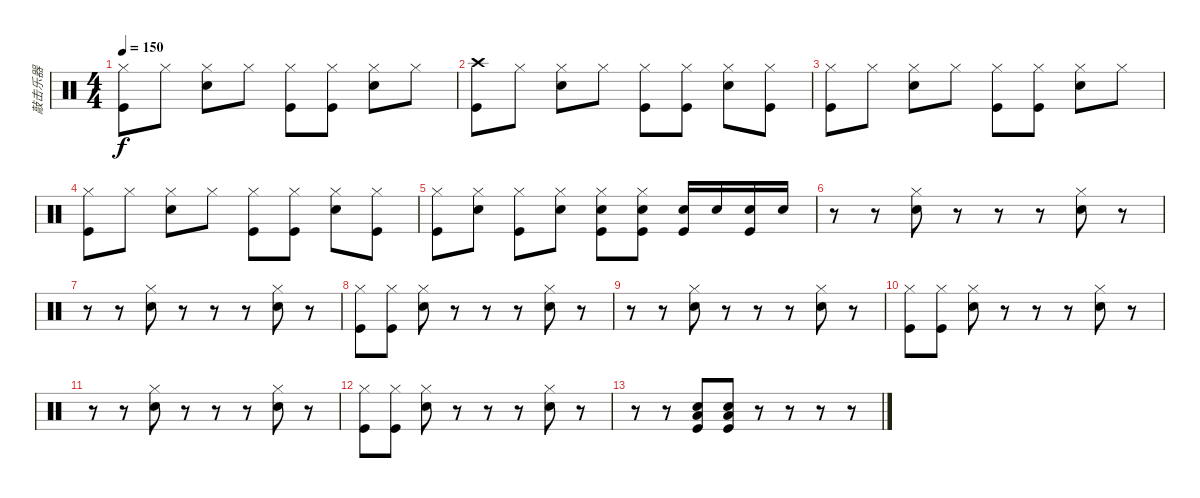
\track ("敲击乐器" "敲击乐器") {instrument percussion}
\staff {score}
\articulation defaults
\ts (4 4)
\tempo 150
\clef neutral
\ks c
("Hi-Hat (closed)" "Kick (hit)").8{dy f} "Hi-Hat (closed)".8 ("Hi-Hat (closed)" "Electric Snare (hit)").8 "Hi-Hat (closed)".8 ("Hi-Hat (closed)" "Kick (hit)").8 ("Hi-Hat (closed)" "Kick (hit)").8 ("Hi-Hat (closed)" "Electric Snare (hit)").8 "Hi-Hat (closed)".8 |
("Crash high (hit)" "Kick (hit)").8 "Hi-Hat (closed)".8 ("Hi-Hat (closed)" "Electric Snare (hit)").8 "Hi-Hat (closed)".8 ("Hi-Hat (closed)" "Kick (hit)").8 ("Hi-Hat (closed)" "Kick (hit)").8 ("Hi-Hat (closed)" "Electric Snare (hit)").8 ("Hi-Hat (closed)" "Kick (hit)").8 |
("Hi-Hat (closed)" "Kick (hit)").8 "Hi-Hat (closed)".8 ("Hi-Hat (closed)" "Electric Snare (hit)").8 "Hi-Hat (closed)".8 ("Hi-Hat (closed)" "Kick (hit)").8 ("Hi-Hat (closed)" "Kick (hit)").8 ("Hi-Hat (closed)" "Electric Snare (hit)").8 "Hi-Hat (closed)".8 |
("Hi-Hat (closed)" "Kick (hit)").8 "Hi-Hat (closed)".8 ("Hi-Hat (closed)" "Electric Snare (hit)").8 "Hi-Hat (closed)".8 ("Hi-Hat (closed)" "Kick (hit)").8 ("Hi-Hat (closed)" "Kick (hit)").8 ("Hi-Hat (closed)" "Electric Snare (hit)").8 ("Hi-Hat (closed)" "Kick (hit)").8 |
("Hi-Hat (closed)" "Kick (hit)").8 ("Hi-Hat (closed)" "Electric Snare (hit)").8 ("Hi-Hat (closed)" "Kick (hit)").8 ("Hi-Hat (closed)" "Electric Snare (hit)").8 ("Hi-Hat (closed)" "Electric Snare (hit)" "Kick (hit)").8 ("Hi-Hat (closed)" "Electric Snare (hit)" "Kick (hit)").8 ("Electric Snare (hit)" "Kick (hit)").16 "Electric Snare (hit)".16 ("Electric Snare (hit)" "Kick (hit)").16 "Electric Snare (hit)".16 |
r.8 r.8 ("Hi-Hat (closed)" "Electric Snare (hit)").8 r.8 r.8 r.8 ("Hi-Hat (closed)" "Electric Snare (hit)").8 r.8 |
r.8 r.8 ("Hi-Hat (closed)" "Electric Snare (hit)").8 r.8 r.8 r.8 ("Hi-Hat (closed)" "Electric Snare (hit)").8 r.8 |
("Hi-Hat (closed)" "Kick (hit)").8 ("Hi-Hat (closed)" "Kick (hit)").8 ("Hi-Hat (closed)" "Electric Snare (hit)").8 r.8 r.8 r.8 ("Hi-Hat (closed)" "Electric Snare (hit)").8 r.8 |
r.8 r.8 ("Hi-Hat (closed)" "Electric Snare (hit)").8 r.8 r.8 r.8 ("Hi-Hat (closed)" "Electric Snare (hit)").8 r.8 |
("Hi-Hat (closed)" "Kick (hit)").8 ("Hi-Hat (closed)" "Kick (hit)").8 ("Hi-Hat (closed)" "Electric Snare (hit)").8 r.8 r.8 r.8 ("Hi-Hat (closed)" "Electric Snare (hit)").8 r.8 |
r.8 r.8 ("Hi-Hat (closed)" "Electric Snare (hit)").8 r.8 r.8 r.8 ("Hi-Hat (closed)" "Electric Snare (hit)").8 r.8 |
("Hi-Hat (closed)" "Kick (hit)").8 ("Hi-Hat (closed)" "Kick (hit)").8 ("Hi-Hat (closed)" "Electric Snare (hit)").8 r.8 r.8 r.8 ("Hi-Hat (closed)" "Electric Snare (hit)").8 r.8 |
r.8 r.8 ("Electric Snare (hit)" "Kick (hit)" "Low Floor Tom (hit)").8 ("Electric Snare (hit)" "Kick (hit)" "Low Floor Tom (hit)").8 r.8 r.8 r.8 r.8
